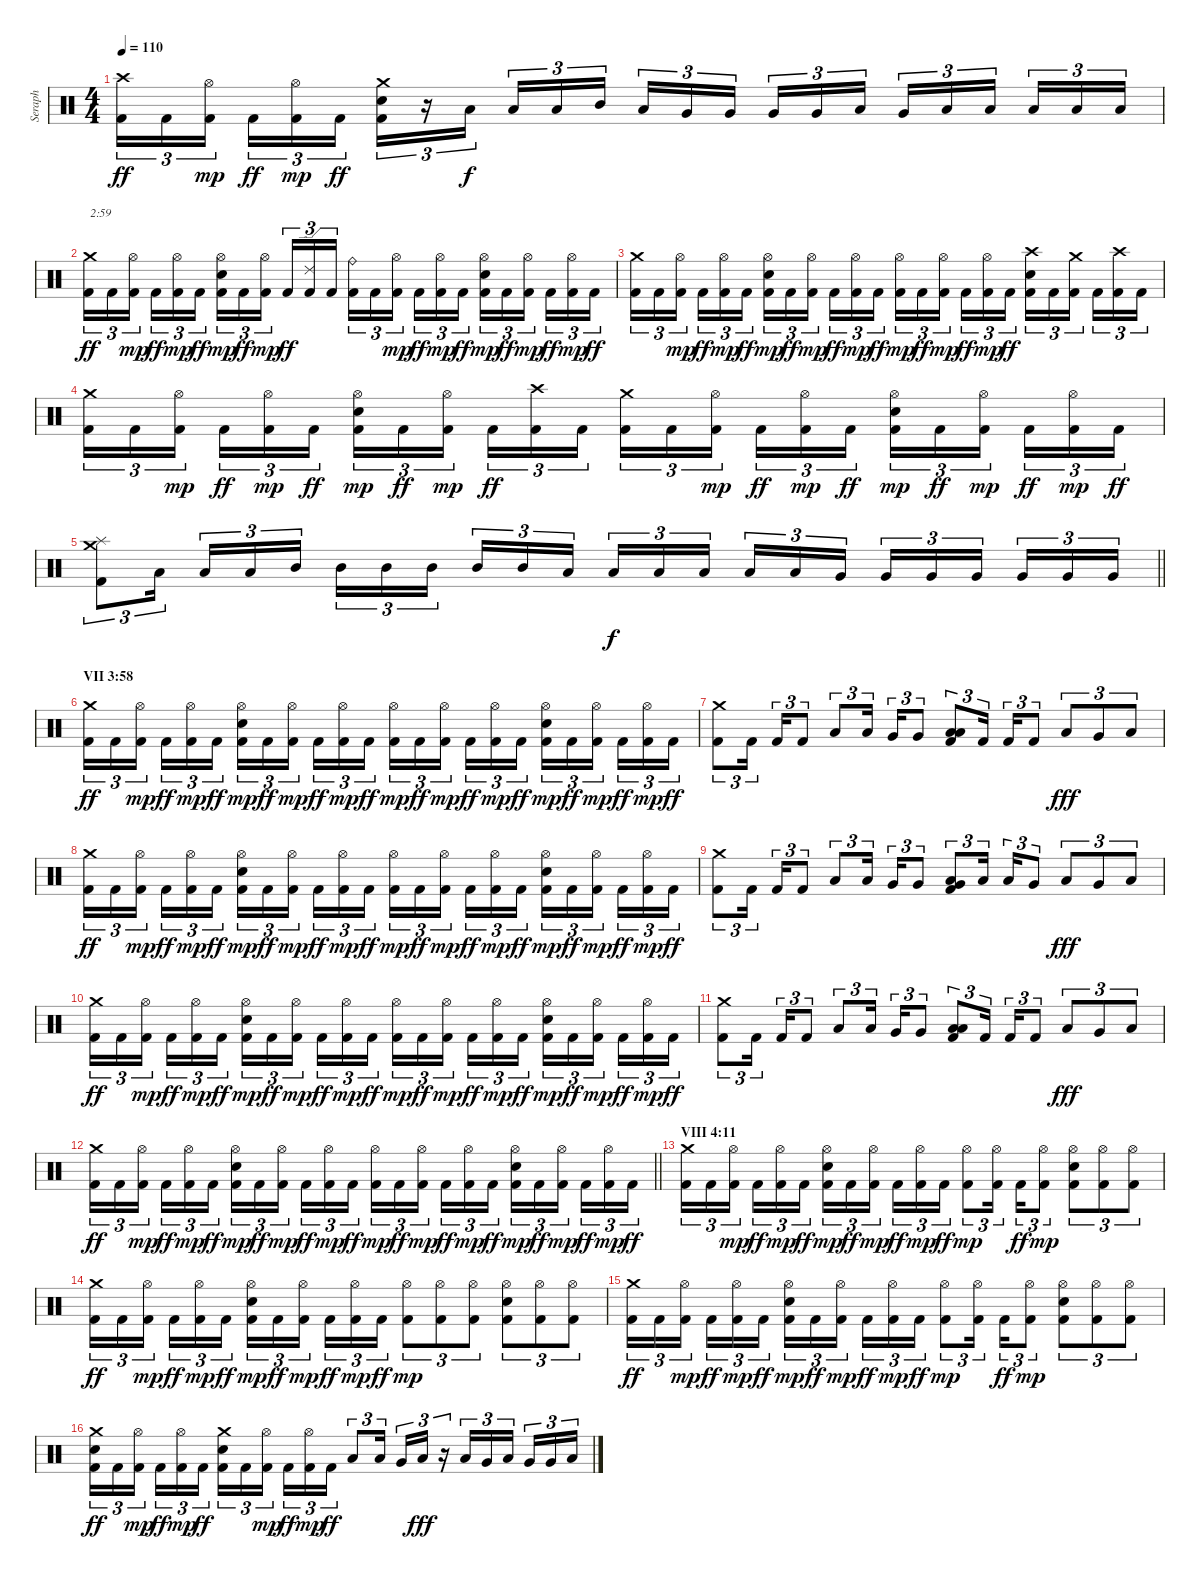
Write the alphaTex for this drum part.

\track ("Seraph" "Seraph") {instrument percussion}
\staff {score}
\articulation defaults
\ts (4 4)
\tempo 110
\clef neutral
\ks c
("Kick (hit) 2" "Crash high (hit)").16{tu (3 2) dy ff} "Kick (hit) 2".16{tu (3 2)} ("Kick (hit) 2" "Hi-Hat (open)").16{tu (3 2) dy mp beam splitsecondary} "Kick (hit) 2".16{tu (3 2) dy ff} ("Kick (hit) 2" "Hi-Hat (open)").16{tu (3 2) dy mp} "Kick (hit) 2".16{tu (3 2) dy ff} ("Kick (hit) 2" "Electric Snare (hit)" "Crash medium (hit)").16{tu (3 2)} r.16{tu (3 2)} "Low Tom (hit)".16{tu (3 2) dy f beam splitsecondary} "Low Tom (hit)".16{tu (3 2)} "Low Tom (hit)".16{tu (3 2)} "Mid Tom (hit)".16{tu (3 2)} "Low Tom (hit)".16{tu (3 2)} "Very Low Tom (hit)".16{tu (3 2)} "Very Low Tom (hit)".16{tu (3 2) beam splitsecondary} "Very Low Tom (hit)".16{tu (3 2)} "Very Low Tom (hit)".16{tu (3 2)} "Low Tom (hit)".16{tu (3 2)} "Very Low Tom (hit)".16{tu (3 2)} "Low Floor Tom (hit)".16{tu (3 2)} "Low Floor Tom (hit)".16{tu (3 2) beam splitsecondary} "Low Floor Tom (hit)".16{tu (3 2)} "Low Floor Tom (hit)".16{tu (3 2)} "Low Floor Tom (hit)".16{tu (3 2)} |
("Kick (hit) 2" "Crash medium (hit)").16{tu (3 2) txt "2:59" dy ff} "Kick (hit) 2".16{tu (3 2)} ("Kick (hit) 2" "Hi-Hat (open)").16{tu (3 2) dy mp beam splitsecondary} "Kick (hit) 2".16{tu (3 2) dy ff} ("Kick (hit) 2" "Hi-Hat (open)").16{tu (3 2) dy mp} "Kick (hit) 2".16{tu (3 2) dy ff} ("Kick (hit) 2" "Electric Snare (hit)" "Hi-Hat (open)").16{tu (3 2) dy mp} "Kick (hit) 2".16{tu (3 2) dy ff} ("Kick (hit) 2" "Hi-Hat (open)").16{tu (3 2) dy mp beam splitsecondary} "Kick (hit) 2".16{tu (3 2) dy ff} ("Kick (hit) 2" "Ride (edge) 2").16{tu (3 2)} "Kick (hit) 2".16{tu (3 2)} ("Kick (hit) 2" "Ride (bell)").16{tu (3 2)} "Kick (hit) 2".16{tu (3 2)} ("Kick (hit) 2" "Hi-Hat (open)").16{tu (3 2) dy mp beam splitsecondary} "Kick (hit) 2".16{tu (3 2) dy ff} ("Kick (hit) 2" "Hi-Hat (open)").16{tu (3 2) dy mp} "Kick (hit) 2".16{tu (3 2) dy ff} ("Kick (hit) 2" "Electric Snare (hit)" "Hi-Hat (open)").16{tu (3 2) dy mp} "Kick (hit) 2".16{tu (3 2) dy ff} ("Kick (hit) 2" "Hi-Hat (open)").16{tu (3 2) dy mp beam splitsecondary} "Kick (hit) 2".16{tu (3 2) dy ff} ("Kick (hit) 2" "Hi-Hat (open)").16{tu (3 2) dy mp} "Kick (hit) 2".16{tu (3 2) dy ff} |
("Kick (hit) 2" "Crash medium (hit)").16{tu (3 2)} "Kick (hit) 2".16{tu (3 2)} ("Kick (hit) 2" "Hi-Hat (open)").16{tu (3 2) dy mp beam splitsecondary} "Kick (hit) 2".16{tu (3 2) dy ff} ("Kick (hit) 2" "Hi-Hat (open)").16{tu (3 2) dy mp} "Kick (hit) 2".16{tu (3 2) dy ff} ("Kick (hit) 2" "Electric Snare (hit)" "Hi-Hat (open)").16{tu (3 2) dy mp} "Kick (hit) 2".16{tu (3 2) dy ff} ("Kick (hit) 2" "Hi-Hat (open)").16{tu (3 2) dy mp beam splitsecondary} "Kick (hit) 2".16{tu (3 2) dy ff} ("Kick (hit) 2" "Hi-Hat (open)").16{tu (3 2) dy mp} "Kick (hit) 2".16{tu (3 2) dy ff} ("Kick (hit) 2" "Hi-Hat (open)").16{tu (3 2) dy mp} "Kick (hit) 2".16{tu (3 2) dy ff} ("Kick (hit) 2" "Hi-Hat (open)").16{tu (3 2) dy mp beam splitsecondary} "Kick (hit) 2".16{tu (3 2) dy ff} ("Kick (hit) 2" "Hi-Hat (open)").16{tu (3 2) dy mp} "Kick (hit) 2".16{tu (3 2) dy ff} ("Kick (hit) 2" "Electric Snare (hit)" "Crash high (hit)").16{tu (3 2)} "Kick (hit) 2".16{tu (3 2)} ("Kick (hit) 2" "Crash medium (hit)").16{tu (3 2) beam splitsecondary} "Kick (hit) 2".16{tu (3 2)} ("Kick (hit) 2" "Crash high (hit)").16{tu (3 2)} "Kick (hit) 2".16{tu (3 2)} |
("Kick (hit) 2" "Crash medium (hit)").16{tu (3 2)} "Kick (hit) 2".16{tu (3 2)} ("Kick (hit) 2" "Hi-Hat (open)").16{tu (3 2) dy mp beam splitsecondary} "Kick (hit) 2".16{tu (3 2) dy ff} ("Kick (hit) 2" "Hi-Hat (open)").16{tu (3 2) dy mp} "Kick (hit) 2".16{tu (3 2) dy ff} ("Kick (hit) 2" "Electric Snare (hit)" "Hi-Hat (open)").16{tu (3 2) dy mp} "Kick (hit) 2".16{tu (3 2) dy ff} ("Kick (hit) 2" "Hi-Hat (open)").16{tu (3 2) dy mp beam splitsecondary} "Kick (hit) 2".16{tu (3 2) dy ff} ("Kick (hit) 2" "Crash high (hit)").16{tu (3 2)} "Kick (hit) 2".16{tu (3 2)} ("Kick (hit) 2" "Crash medium (hit)").16{tu (3 2)} "Kick (hit) 2".16{tu (3 2)} ("Kick (hit) 2" "Hi-Hat (open)").16{tu (3 2) dy mp beam splitsecondary} "Kick (hit) 2".16{tu (3 2) dy ff} ("Kick (hit) 2" "Hi-Hat (open)").16{tu (3 2) dy mp} "Kick (hit) 2".16{tu (3 2) dy ff} ("Kick (hit) 2" "Electric Snare (hit)" "Hi-Hat (open)").16{tu (3 2) dy mp} "Kick (hit) 2".16{tu (3 2) dy ff} ("Kick (hit) 2" "Hi-Hat (open)").16{tu (3 2) dy mp beam splitsecondary} "Kick (hit) 2".16{tu (3 2) dy ff} ("Kick (hit) 2" "Hi-Hat (open)").16{tu (3 2) dy mp} "Kick (hit) 2".16{tu (3 2) dy ff} |
\barLineRight lightlight
("Kick (hit) 2" "Splash (hit)" "Crash medium (hit)").8{tu (3 2)} "Low Tom (hit)".16{tu (3 2) beam splitsecondary} "Low Tom (hit)".16{tu (3 2)} "Low Tom (hit)".16{tu (3 2)} "Mid Tom (hit)".16{tu (3 2)} "Mid Tom (hit)".16{tu (3 2)} "Mid Tom (hit)".16{tu (3 2)} "Mid Tom (hit)".16{tu (3 2) beam splitsecondary} "Mid Tom (hit)".16{tu (3 2)} "Mid Tom (hit)".16{tu (3 2)} "Low Tom (hit)".16{tu (3 2)} "Low Tom (hit)".16{tu (3 2) dy f} "Low Tom (hit)".16{tu (3 2)} "Low Tom (hit)".16{tu (3 2) beam splitsecondary} "Low Tom (hit)".16{tu (3 2)} "Low Tom (hit)".16{tu (3 2)} "Very Low Tom (hit)".16{tu (3 2)} "Very Low Tom (hit)".16{tu (3 2)} "Very Low Tom (hit)".16{tu (3 2)} "Very Low Tom (hit)".16{tu (3 2) beam splitsecondary} "Very Low Tom (hit)".16{tu (3 2)} "Very Low Tom (hit)".16{tu (3 2)} "Very Low Tom (hit)".16{tu (3 2)} |
\section ("" "VII 3:58")
("Kick (hit) 2" "Crash medium (hit)").16{tu (3 2) dy ff} "Kick (hit) 2".16{tu (3 2)} ("Kick (hit) 2" "Hi-Hat (open)").16{tu (3 2) dy mp beam splitsecondary} "Kick (hit) 2".16{tu (3 2) dy ff} ("Kick (hit) 2" "Hi-Hat (open)").16{tu (3 2) dy mp} "Kick (hit) 2".16{tu (3 2) dy ff} ("Kick (hit) 2" "Electric Snare (hit)" "Hi-Hat (open)").16{tu (3 2) dy mp} "Kick (hit) 2".16{tu (3 2) dy ff} ("Kick (hit) 2" "Hi-Hat (open)").16{tu (3 2) dy mp beam splitsecondary} "Kick (hit) 2".16{tu (3 2) dy ff} ("Kick (hit) 2" "Hi-Hat (open)").16{tu (3 2) dy mp} "Kick (hit) 2".16{tu (3 2) dy ff} ("Kick (hit) 2" "Hi-Hat (open)").16{tu (3 2) dy mp} "Kick (hit) 2".16{tu (3 2) dy ff} ("Kick (hit) 2" "Hi-Hat (open)").16{tu (3 2) dy mp beam splitsecondary} "Kick (hit) 2".16{tu (3 2) dy ff} ("Kick (hit) 2" "Hi-Hat (open)").16{tu (3 2) dy mp} "Kick (hit) 2".16{tu (3 2) dy ff} ("Kick (hit) 2" "Electric Snare (hit)" "Hi-Hat (open)").16{tu (3 2) dy mp} "Kick (hit) 2".16{tu (3 2) dy ff} ("Kick (hit) 2" "Hi-Hat (open)").16{tu (3 2) dy mp beam splitsecondary} "Kick (hit) 2".16{tu (3 2) dy ff} ("Kick (hit) 2" "Hi-Hat (open)").16{tu (3 2) dy mp} "Kick (hit) 2".16{tu (3 2) dy ff} |
("Kick (hit) 2" "Crash medium (hit)").8{tu (3 2)} "Kick (hit) 2".16{tu (3 2) beam splitsecondary} "Kick (hit) 2".16{tu (3 2)} "Kick (hit) 2".8{tu (3 2)} "Low Tom (hit)".8{tu (3 2)} "Low Tom (hit)".16{tu (3 2) beam splitsecondary} "Very Low Tom (hit)".16{tu (3 2)} "Very Low Tom (hit)".8{tu (3 2)} ("Kick (hit) 2" "Low Floor Tom (hit)" "Low Tom (hit)").8{tu (3 2)} "Kick (hit) 2".16{tu (3 2) beam splitsecondary} "Kick (hit) 2".16{tu (3 2)} "Kick (hit) 2".8{tu (3 2)} "Low Tom (hit)".8{tu (3 2) dy fff} "Very Low Tom (hit)".8{tu (3 2)} "Low Floor Tom (hit)".8{tu (3 2)} |
("Kick (hit) 2" "Crash medium (hit)").16{tu (3 2) dy ff} "Kick (hit) 2".16{tu (3 2)} ("Kick (hit) 2" "Hi-Hat (open)").16{tu (3 2) dy mp beam splitsecondary} "Kick (hit) 2".16{tu (3 2) dy ff} ("Kick (hit) 2" "Hi-Hat (open)").16{tu (3 2) dy mp} "Kick (hit) 2".16{tu (3 2) dy ff} ("Kick (hit) 2" "Electric Snare (hit)" "Hi-Hat (open)").16{tu (3 2) dy mp} "Kick (hit) 2".16{tu (3 2) dy ff} ("Kick (hit) 2" "Hi-Hat (open)").16{tu (3 2) dy mp beam splitsecondary} "Kick (hit) 2".16{tu (3 2) dy ff} ("Kick (hit) 2" "Hi-Hat (open)").16{tu (3 2) dy mp} "Kick (hit) 2".16{tu (3 2) dy ff} ("Kick (hit) 2" "Hi-Hat (open)").16{tu (3 2) dy mp} "Kick (hit) 2".16{tu (3 2) dy ff} ("Kick (hit) 2" "Hi-Hat (open)").16{tu (3 2) dy mp beam splitsecondary} "Kick (hit) 2".16{tu (3 2) dy ff} ("Kick (hit) 2" "Hi-Hat (open)").16{tu (3 2) dy mp} "Kick (hit) 2".16{tu (3 2) dy ff} ("Kick (hit) 2" "Electric Snare (hit)" "Hi-Hat (open)").16{tu (3 2) dy mp} "Kick (hit) 2".16{tu (3 2) dy ff} ("Kick (hit) 2" "Hi-Hat (open)").16{tu (3 2) dy mp beam splitsecondary} "Kick (hit) 2".16{tu (3 2) dy ff} ("Kick (hit) 2" "Hi-Hat (open)").16{tu (3 2) dy mp} "Kick (hit) 2".16{tu (3 2) dy ff} |
("Kick (hit) 2" "Crash medium (hit)").8{tu (3 2)} "Kick (hit) 2".16{tu (3 2) beam splitsecondary} "Kick (hit) 2".16{tu (3 2)} "Kick (hit) 2".8{tu (3 2)} "Low Tom (hit)".8{tu (3 2)} "Low Tom (hit)".16{tu (3 2) beam splitsecondary} "Very Low Tom (hit)".16{tu (3 2)} "Very Low Tom (hit)".8{tu (3 2)} ("Kick (hit) 2" "Very Low Tom (hit)" "Low Tom (hit)").8{tu (3 2)} "Low Tom (hit)".16{tu (3 2) beam splitsecondary} "Low Tom (hit)".16{tu (3 2)} "Very Low Tom (hit)".8{tu (3 2)} "Low Tom (hit)".8{tu (3 2) dy fff} "Very Low Tom (hit)".8{tu (3 2)} "Low Floor Tom (hit)".8{tu (3 2)} |
("Kick (hit) 2" "Crash medium (hit)").16{tu (3 2) dy ff} "Kick (hit) 2".16{tu (3 2)} ("Kick (hit) 2" "Hi-Hat (open)").16{tu (3 2) dy mp beam splitsecondary} "Kick (hit) 2".16{tu (3 2) dy ff} ("Kick (hit) 2" "Hi-Hat (open)").16{tu (3 2) dy mp} "Kick (hit) 2".16{tu (3 2) dy ff} ("Kick (hit) 2" "Electric Snare (hit)" "Hi-Hat (open)").16{tu (3 2) dy mp} "Kick (hit) 2".16{tu (3 2) dy ff} ("Kick (hit) 2" "Hi-Hat (open)").16{tu (3 2) dy mp beam splitsecondary} "Kick (hit) 2".16{tu (3 2) dy ff} ("Kick (hit) 2" "Hi-Hat (open)").16{tu (3 2) dy mp} "Kick (hit) 2".16{tu (3 2) dy ff} ("Kick (hit) 2" "Hi-Hat (open)").16{tu (3 2) dy mp} "Kick (hit) 2".16{tu (3 2) dy ff} ("Kick (hit) 2" "Hi-Hat (open)").16{tu (3 2) dy mp beam splitsecondary} "Kick (hit) 2".16{tu (3 2) dy ff} ("Kick (hit) 2" "Hi-Hat (open)").16{tu (3 2) dy mp} "Kick (hit) 2".16{tu (3 2) dy ff} ("Kick (hit) 2" "Electric Snare (hit)" "Hi-Hat (open)").16{tu (3 2) dy mp} "Kick (hit) 2".16{tu (3 2) dy ff} ("Kick (hit) 2" "Hi-Hat (open)").16{tu (3 2) dy mp beam splitsecondary} "Kick (hit) 2".16{tu (3 2) dy ff} ("Kick (hit) 2" "Hi-Hat (open)").16{tu (3 2) dy mp} "Kick (hit) 2".16{tu (3 2) dy ff} |
("Kick (hit) 2" "Crash medium (hit)").8{tu (3 2)} "Kick (hit) 2".16{tu (3 2) beam splitsecondary} "Kick (hit) 2".16{tu (3 2)} "Kick (hit) 2".8{tu (3 2)} "Low Tom (hit)".8{tu (3 2)} "Low Tom (hit)".16{tu (3 2) beam splitsecondary} "Very Low Tom (hit)".16{tu (3 2)} "Very Low Tom (hit)".8{tu (3 2)} ("Kick (hit) 2" "Low Floor Tom (hit)" "Low Tom (hit)").8{tu (3 2)} "Kick (hit) 2".16{tu (3 2) beam splitsecondary} "Kick (hit) 2".16{tu (3 2)} "Kick (hit) 2".8{tu (3 2)} "Low Tom (hit)".8{tu (3 2) dy fff} "Very Low Tom (hit)".8{tu (3 2)} "Low Floor Tom (hit)".8{tu (3 2)} |
\barLineRight lightlight
("Kick (hit) 2" "Crash medium (hit)").16{tu (3 2) dy ff} "Kick (hit) 2".16{tu (3 2)} ("Kick (hit) 2" "Hi-Hat (open)").16{tu (3 2) dy mp beam splitsecondary} "Kick (hit) 2".16{tu (3 2) dy ff} ("Kick (hit) 2" "Hi-Hat (open)").16{tu (3 2) dy mp} "Kick (hit) 2".16{tu (3 2) dy ff} ("Kick (hit) 2" "Electric Snare (hit)" "Hi-Hat (open)").16{tu (3 2) dy mp} "Kick (hit) 2".16{tu (3 2) dy ff} ("Kick (hit) 2" "Hi-Hat (open)").16{tu (3 2) dy mp beam splitsecondary} "Kick (hit) 2".16{tu (3 2) dy ff} ("Kick (hit) 2" "Hi-Hat (open)").16{tu (3 2) dy mp} "Kick (hit) 2".16{tu (3 2) dy ff} ("Kick (hit) 2" "Hi-Hat (open)").16{tu (3 2) dy mp} "Kick (hit) 2".16{tu (3 2) dy ff} ("Kick (hit) 2" "Hi-Hat (open)").16{tu (3 2) dy mp beam splitsecondary} "Kick (hit) 2".16{tu (3 2) dy ff} ("Kick (hit) 2" "Hi-Hat (open)").16{tu (3 2) dy mp} "Kick (hit) 2".16{tu (3 2) dy ff} ("Kick (hit) 2" "Electric Snare (hit)" "Hi-Hat (open)").16{tu (3 2) dy mp} "Kick (hit) 2".16{tu (3 2) dy ff} ("Kick (hit) 2" "Hi-Hat (open)").16{tu (3 2) dy mp beam splitsecondary} "Kick (hit) 2".16{tu (3 2) dy ff} ("Kick (hit) 2" "Hi-Hat (open)").16{tu (3 2) dy mp} "Kick (hit) 2".16{tu (3 2) dy ff} |
\section ("" "VIII 4:11")
("Kick (hit) 2" "Crash medium (hit)").16{tu (3 2)} "Kick (hit) 2".16{tu (3 2)} ("Kick (hit) 2" "Hi-Hat (open)").16{tu (3 2) dy mp beam splitsecondary} "Kick (hit) 2".16{tu (3 2) dy ff} ("Kick (hit) 2" "Hi-Hat (open)").16{tu (3 2) dy mp} "Kick (hit) 2".16{tu (3 2) dy ff} ("Kick (hit) 2" "Electric Snare (hit)" "Hi-Hat (open)").16{tu (3 2) dy mp} "Kick (hit) 2".16{tu (3 2) dy ff} ("Kick (hit) 2" "Hi-Hat (open)").16{tu (3 2) dy mp beam splitsecondary} "Kick (hit) 2".16{tu (3 2) dy ff} ("Kick (hit) 2" "Hi-Hat (open)").16{tu (3 2) dy mp} "Kick (hit) 2".16{tu (3 2) dy ff} ("Kick (hit) 2" "Hi-Hat (open)").8{tu (3 2) dy mp} ("Kick (hit) 2" "Hi-Hat (open)").16{tu (3 2) beam splitsecondary} "Kick (hit) 2".16{tu (3 2) dy ff} ("Kick (hit) 2" "Hi-Hat (open)").8{tu (3 2) dy mp} ("Kick (hit) 2" "Electric Snare (hit)" "Hi-Hat (open)").8{tu (3 2)} ("Kick (hit) 2" "Hi-Hat (open)").8{tu (3 2)} ("Kick (hit) 2" "Hi-Hat (open)").8{tu (3 2)} |
("Kick (hit) 2" "Crash medium (hit)").16{tu (3 2) dy ff} "Kick (hit) 2".16{tu (3 2)} ("Kick (hit) 2" "Hi-Hat (open)").16{tu (3 2) dy mp beam splitsecondary} "Kick (hit) 2".16{tu (3 2) dy ff} ("Kick (hit) 2" "Hi-Hat (open)").16{tu (3 2) dy mp} "Kick (hit) 2".16{tu (3 2) dy ff} ("Kick (hit) 2" "Electric Snare (hit)" "Hi-Hat (open)").16{tu (3 2) dy mp} "Kick (hit) 2".16{tu (3 2) dy ff} ("Kick (hit) 2" "Hi-Hat (open)").16{tu (3 2) dy mp beam splitsecondary} "Kick (hit) 2".16{tu (3 2) dy ff} ("Kick (hit) 2" "Hi-Hat (open)").16{tu (3 2) dy mp} "Kick (hit) 2".16{tu (3 2) dy ff} ("Kick (hit) 2" "Hi-Hat (open)").8{tu (3 2) dy mp} ("Kick (hit) 2" "Hi-Hat (open)").8{tu (3 2)} ("Kick (hit) 2" "Hi-Hat (open)").8{tu (3 2)} ("Kick (hit) 2" "Electric Snare (hit)" "Hi-Hat (open)").8{tu (3 2)} ("Kick (hit) 2" "Hi-Hat (open)").8{tu (3 2)} ("Kick (hit) 2" "Hi-Hat (open)").8{tu (3 2)} |
("Kick (hit) 2" "Crash medium (hit)").16{tu (3 2) dy ff} "Kick (hit) 2".16{tu (3 2)} ("Kick (hit) 2" "Hi-Hat (open)").16{tu (3 2) dy mp beam splitsecondary} "Kick (hit) 2".16{tu (3 2) dy ff} ("Kick (hit) 2" "Hi-Hat (open)").16{tu (3 2) dy mp} "Kick (hit) 2".16{tu (3 2) dy ff} ("Kick (hit) 2" "Electric Snare (hit)" "Hi-Hat (open)").16{tu (3 2) dy mp} "Kick (hit) 2".16{tu (3 2) dy ff} ("Kick (hit) 2" "Hi-Hat (open)").16{tu (3 2) dy mp beam splitsecondary} "Kick (hit) 2".16{tu (3 2) dy ff} ("Kick (hit) 2" "Hi-Hat (open)").16{tu (3 2) dy mp} "Kick (hit) 2".16{tu (3 2) dy ff} ("Kick (hit) 2" "Hi-Hat (open)").8{tu (3 2) dy mp} ("Kick (hit) 2" "Hi-Hat (open)").16{tu (3 2) beam splitsecondary} "Kick (hit) 2".16{tu (3 2) dy ff} ("Kick (hit) 2" "Hi-Hat (open)").8{tu (3 2) dy mp} ("Kick (hit) 2" "Electric Snare (hit)" "Hi-Hat (open)").8{tu (3 2)} ("Kick (hit) 2" "Hi-Hat (open)").8{tu (3 2)} ("Kick (hit) 2" "Hi-Hat (open)").8{tu (3 2)} |
("Kick (hit) 2" "Electric Snare (hit)" "Crash medium (hit)").16{tu (3 2) dy ff} "Kick (hit) 2".16{tu (3 2)} ("Kick (hit) 2" "Hi-Hat (open)").16{tu (3 2) dy mp beam splitsecondary} "Kick (hit) 2".16{tu (3 2) dy ff} ("Kick (hit) 2" "Hi-Hat (open)").16{tu (3 2) dy mp} "Kick (hit) 2".16{tu (3 2) dy ff} ("Kick (hit) 2" "Electric Snare (hit)" "Crash medium (hit)").16{tu (3 2)} "Kick (hit) 2".16{tu (3 2)} ("Kick (hit) 2" "Hi-Hat (open)").16{tu (3 2) dy mp beam splitsecondary} "Kick (hit) 2".16{tu (3 2) dy ff} ("Kick (hit) 2" "Hi-Hat (open)").16{tu (3 2) dy mp} "Kick (hit) 2".16{tu (3 2) dy ff} "Low Tom (hit)".8{tu (3 2)} "Low Tom (hit)".16{tu (3 2) beam splitsecondary} "Very Low Tom (hit)".16{tu (3 2)} "Low Tom (hit)".16{tu (3 2) dy fff} r.16{tu (3 2)} "Low Tom (hit)".16{tu (3 2)} "Very Low Tom (hit)".16{tu (3 2)} "Low Tom (hit)".16{tu (3 2) beam splitsecondary} "Very Low Tom (hit)".16{tu (3 2)} "Very Low Tom (hit)".16{tu (3 2)} "Low Floor Tom (hit)".16{tu (3 2)}
